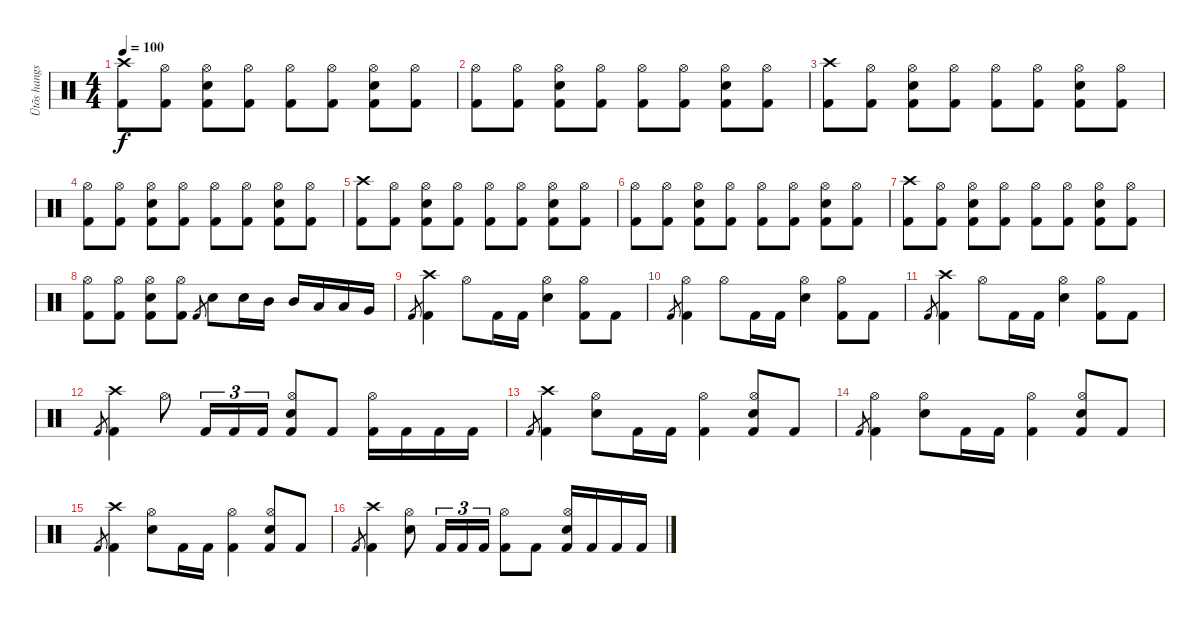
\track ("Ütõs hangszer" "Ütõs hangs") {instrument percussion}
\staff {score}
\articulation defaults
\ts (4 4)
\tempo 100
\clef neutral
\ks c
("Crash high (hit)" "Kick (hit) 2").8{dy f} ("Hi-Hat (open)" "Kick (hit) 2").8 ("Hi-Hat (open)" "Snare (hit) 2" "Kick (hit) 2").8 ("Hi-Hat (open)" "Kick (hit) 2").8 ("Hi-Hat (open)" "Kick (hit) 2").8 ("Hi-Hat (open)" "Kick (hit) 2").8 ("Hi-Hat (open)" "Snare (hit) 2" "Kick (hit) 2").8 ("Hi-Hat (open)" "Kick (hit) 2").8 |
("Hi-Hat (open)" "Kick (hit) 2").8 ("Hi-Hat (open)" "Kick (hit) 2").8 ("Hi-Hat (open)" "Snare (hit) 2" "Kick (hit) 2").8 ("Hi-Hat (open)" "Kick (hit) 2").8 ("Hi-Hat (open)" "Kick (hit) 2").8 ("Hi-Hat (open)" "Kick (hit) 2").8 ("Hi-Hat (open)" "Snare (hit) 2" "Kick (hit) 2").8 ("Hi-Hat (open)" "Kick (hit) 2").8 |
("Crash high (hit)" "Kick (hit) 2").8 ("Hi-Hat (open)" "Kick (hit) 2").8 ("Hi-Hat (open)" "Snare (hit) 2" "Kick (hit) 2").8 ("Hi-Hat (open)" "Kick (hit) 2").8 ("Hi-Hat (open)" "Kick (hit) 2").8 ("Hi-Hat (open)" "Kick (hit) 2").8 ("Hi-Hat (open)" "Snare (hit) 2" "Kick (hit) 2").8 ("Hi-Hat (open)" "Kick (hit) 2").8 |
("Hi-Hat (open)" "Kick (hit) 2").8 ("Hi-Hat (open)" "Kick (hit) 2").8 ("Hi-Hat (open)" "Snare (hit) 2" "Kick (hit) 2").8 ("Hi-Hat (open)" "Kick (hit) 2").8 ("Hi-Hat (open)" "Kick (hit) 2").8 ("Hi-Hat (open)" "Kick (hit) 2").8 ("Hi-Hat (open)" "Snare (hit) 2" "Kick (hit) 2").8 ("Hi-Hat (open)" "Kick (hit) 2").8 |
("Crash high (hit)" "Kick (hit) 2").8 ("Hi-Hat (open)" "Kick (hit) 2").8 ("Hi-Hat (open)" "Snare (hit) 2" "Kick (hit) 2").8 ("Hi-Hat (open)" "Kick (hit) 2").8 ("Hi-Hat (open)" "Kick (hit) 2").8 ("Hi-Hat (open)" "Kick (hit) 2").8 ("Hi-Hat (open)" "Snare (hit) 2" "Kick (hit) 2").8 ("Hi-Hat (open)" "Kick (hit) 2").8 |
("Hi-Hat (open)" "Kick (hit) 2").8 ("Hi-Hat (open)" "Kick (hit) 2").8 ("Hi-Hat (open)" "Snare (hit) 2" "Kick (hit) 2").8 ("Hi-Hat (open)" "Kick (hit) 2").8 ("Hi-Hat (open)" "Kick (hit) 2").8 ("Hi-Hat (open)" "Kick (hit) 2").8 ("Hi-Hat (open)" "Snare (hit) 2" "Kick (hit) 2").8 ("Hi-Hat (open)" "Kick (hit) 2").8 |
("Crash high (hit)" "Kick (hit) 2").8 ("Hi-Hat (open)" "Kick (hit) 2").8 ("Hi-Hat (open)" "Snare (hit) 2" "Kick (hit) 2").8 ("Hi-Hat (open)" "Kick (hit) 2").8 ("Hi-Hat (open)" "Kick (hit) 2").8 ("Hi-Hat (open)" "Kick (hit) 2").8 ("Hi-Hat (open)" "Snare (hit) 2" "Kick (hit) 2").8 ("Hi-Hat (open)" "Kick (hit) 2").8 |
("Hi-Hat (open)" "Kick (hit) 2").8 ("Hi-Hat (open)" "Kick (hit) 2").8 ("Hi-Hat (open)" "Snare (hit) 2" "Kick (hit) 2").8 ("Hi-Hat (open)" "Kick (hit) 2").8 "Kick (hit) 2"{h}.8{gr} "Snare (hit) 2".8 "Snare (hit) 2".16 "Mid Tom (hit)".16 "Mid Tom (hit)".16 "Low Tom (hit)".16 "Low Tom (hit)".16 "Very Low Tom (hit)".16 |
"Kick (hit) 2"{h}.8{gr} ("Crash high (hit)" "Kick (hit) 2").4 "Hi-Hat (open)".8 "Kick (hit) 2".16 "Kick (hit) 2".16 ("Hi-Hat (open)" "Snare (hit) 2").4 ("Hi-Hat (open)" "Kick (hit) 2").8 "Kick (hit) 2".8 |
"Kick (hit) 2"{h}.8{gr} ("Hi-Hat (open)" "Kick (hit) 2").4 "Hi-Hat (open)".8 "Kick (hit) 2".16 "Kick (hit) 2".16 ("Hi-Hat (open)" "Snare (hit) 2").4 ("Hi-Hat (open)" "Kick (hit) 2").8 "Kick (hit) 2".8 |
"Kick (hit) 2"{h}.8{gr} ("Crash high (hit)" "Kick (hit) 2").4 "Hi-Hat (open)".8 "Kick (hit) 2".16 "Kick (hit) 2".16 ("Hi-Hat (open)" "Snare (hit) 2").4 ("Hi-Hat (open)" "Kick (hit) 2").8 "Kick (hit) 2".8 |
"Kick (hit) 2"{h}.8{gr} ("Crash high (hit)" "Kick (hit) 2").4 "Hi-Hat (open)".8 "Kick (hit) 2".16{tu (3 2)} "Kick (hit) 2".16{tu (3 2)} "Kick (hit) 2".16{tu (3 2)} ("Hi-Hat (open)" "Snare (hit) 2" "Kick (hit) 2").8 "Kick (hit) 2".8 ("Hi-Hat (open)" "Kick (hit) 2").16 "Kick (hit) 2".16 "Kick (hit) 2".16 "Kick (hit) 2".16 |
"Kick (hit) 2"{h}.8{gr} ("Crash high (hit)" "Kick (hit) 2").4 ("Hi-Hat (open)" "Snare (hit) 2").8 "Kick (hit) 2".16 "Kick (hit) 2".16 ("Hi-Hat (open)" "Kick (hit) 2").4 ("Hi-Hat (open)" "Snare (hit) 2" "Kick (hit) 2").8 "Kick (hit) 2".8 |
"Kick (hit) 2"{h}.8{gr} ("Hi-Hat (open)" "Kick (hit) 2").4 ("Hi-Hat (open)" "Snare (hit) 2").8 "Kick (hit) 2".16 "Kick (hit) 2".16 ("Hi-Hat (open)" "Kick (hit) 2").4 ("Hi-Hat (open)" "Snare (hit) 2" "Kick (hit) 2").8 "Kick (hit) 2".8 |
"Kick (hit) 2"{h}.8{gr} ("Crash high (hit)" "Kick (hit) 2").4 ("Hi-Hat (open)" "Snare (hit) 2").8 "Kick (hit) 2".16 "Kick (hit) 2".16 ("Hi-Hat (open)" "Kick (hit) 2").4 ("Hi-Hat (open)" "Snare (hit) 2" "Kick (hit) 2").8 "Kick (hit) 2".8 |
"Kick (hit) 2"{h}.8{gr} ("Crash high (hit)" "Kick (hit) 2").4 ("Hi-Hat (open)" "Snare (hit) 2").8 "Kick (hit) 2".16{tu (3 2)} "Kick (hit) 2".16{tu (3 2)} "Kick (hit) 2".16{tu (3 2)} ("Hi-Hat (open)" "Kick (hit) 2").8 "Kick (hit) 2".8 ("Hi-Hat (open)" "Snare (hit) 2" "Kick (hit) 2").16 "Kick (hit) 2".16 "Kick (hit) 2".16 "Kick (hit) 2".16
